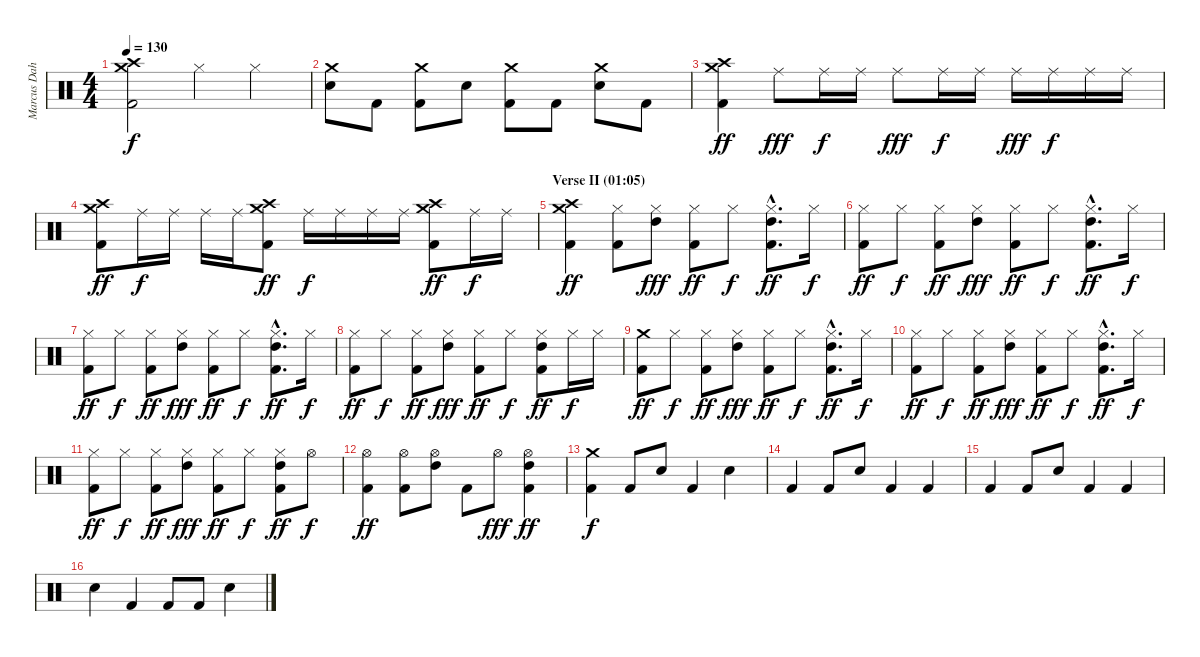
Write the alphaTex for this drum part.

\track ("Marcus Dahlström" "Marcus Dah") {instrument percussion}
\staff {score}
\articulation defaults
\ts (4 4)
\tempo 130
\clef neutral
\ks c
("Crash medium (hit)" "Crash high (hit)" "Kick (hit) 2").2{dy f} "Hi-Hat (closed)".4 "Hi-Hat (closed)".4 |
("Crash medium (hit)" "Electric Snare (hit)").8 "Kick (hit) 2".8 ("Crash medium (hit)" "Kick (hit) 2").8 "Electric Snare (hit)".8 ("Crash medium (hit)" "Kick (hit) 2").8 "Kick (hit) 2".8 ("Crash medium (hit)" "Electric Snare (hit)").8 "Kick (hit) 2".8 |
("Crash high (hit)" "Crash medium (hit)" "Kick (hit) 2").4{dy ff} "Ride (middle)".8{dy fff} "Ride (middle)".16{dy f} "Ride (middle)".16 "Ride (middle)".8{dy fff} "Ride (middle)".16{dy f} "Ride (middle)".16 "Ride (middle)".16{dy fff} "Ride (middle)".16{dy f} "Ride (middle)".16 "Ride (middle)".16 |
("Crash high (hit)" "Crash medium (hit)" "Kick (hit) 2").8{dy ff} "Ride (middle)".16{dy f} "Ride (middle)".16 "Ride (middle)".16 "Ride (middle)".16 ("Crash high (hit)" "Crash medium (hit)" "Kick (hit) 2").8{dy ff} "Ride (middle)".16{dy f} "Ride (middle)".16 "Ride (middle)".16 "Ride (middle)".16 ("Crash high (hit)" "Crash medium (hit)" "Kick (hit) 2").8{dy ff} "Ride (middle)".16{dy f} "Ride (middle)".16 |
\section ("" "Verse II (01:05)")
("Crash high (hit)" "Crash medium (hit)" "Kick (hit) 2").4{dy ff} ("Hi-Hat (closed)" "Kick (hit) 2").8 ("High Tom (hit)" "Hi-Hat (closed)").8{dy fff} ("Hi-Hat (closed)" "Kick (hit) 2").8{dy ff} "Hi-Hat (closed)".8{dy f} ("High Tom (hit)"{hac} "Hi-Hat (closed)"{hac} "Kick (hit) 2"{hac}).8{d dy ff} "Hi-Hat (closed)".16{dy f} |
("Hi-Hat (closed)" "Kick (hit) 2").8{dy ff} "Hi-Hat (closed)".8{dy f} ("Hi-Hat (closed)" "Kick (hit) 2").8{dy ff} ("High Tom (hit)" "Hi-Hat (closed)").8{dy fff} ("Hi-Hat (closed)" "Kick (hit) 2").8{dy ff} "Hi-Hat (closed)".8{dy f} ("High Tom (hit)"{hac} "Hi-Hat (closed)"{hac} "Kick (hit) 2"{hac}).8{d dy ff} "Hi-Hat (closed)".16{dy f} |
("Hi-Hat (closed)" "Kick (hit) 2").8{dy ff} "Hi-Hat (closed)".8{dy f} ("Hi-Hat (closed)" "Kick (hit) 2").8{dy ff} ("High Tom (hit)" "Hi-Hat (closed)").8{dy fff} ("Hi-Hat (closed)" "Kick (hit) 2").8{dy ff} "Hi-Hat (closed)".8{dy f} ("High Tom (hit)"{hac} "Hi-Hat (closed)"{hac} "Kick (hit) 2"{hac}).8{d dy ff} "Hi-Hat (closed)".16{dy f} |
("Hi-Hat (closed)" "Kick (hit) 2").8{dy ff} "Hi-Hat (closed)".8{dy f} ("Hi-Hat (closed)" "Kick (hit) 2").8{dy ff} ("High Tom (hit)" "Hi-Hat (closed)").8{dy fff} ("Hi-Hat (closed)" "Kick (hit) 2").8{dy ff} "Hi-Hat (closed)".8{dy f} ("High Tom (hit)" "Hi-Hat (closed)" "Kick (hit) 2").8{dy ff} "Hi-Hat (closed)".16{dy f} "Hi-Hat (closed)".16 |
("Crash medium (hit)" "Kick (hit) 2").8{dy ff} "Hi-Hat (closed)".8{dy f} ("Hi-Hat (closed)" "Kick (hit) 2").8{dy ff} ("High Tom (hit)" "Hi-Hat (closed)").8{dy fff} ("Hi-Hat (closed)" "Kick (hit) 2").8{dy ff} "Hi-Hat (closed)".8{dy f} ("High Tom (hit)"{hac} "Hi-Hat (closed)"{hac} "Kick (hit) 2"{hac}).8{d dy ff} "Hi-Hat (closed)".16{dy f} |
("Hi-Hat (closed)" "Kick (hit) 2").8{dy ff} "Hi-Hat (closed)".8{dy f} ("Hi-Hat (closed)" "Kick (hit) 2").8{dy ff} ("High Tom (hit)" "Hi-Hat (closed)").8{dy fff} ("Hi-Hat (closed)" "Kick (hit) 2").8{dy ff} "Hi-Hat (closed)".8{dy f} ("High Tom (hit)"{hac} "Hi-Hat (closed)"{hac} "Kick (hit) 2"{hac}).8{d dy ff} "Hi-Hat (closed)".16{dy f} |
("Hi-Hat (closed)" "Kick (hit) 2").8{dy ff} "Hi-Hat (closed)".8{dy f} ("Hi-Hat (closed)" "Kick (hit) 2").8{dy ff} ("High Tom (hit)" "Hi-Hat (closed)").8{dy fff} ("Hi-Hat (closed)" "Kick (hit) 2").8{dy ff} "Hi-Hat (closed)".8{dy f} ("High Tom (hit)" "Hi-Hat (closed)" "Kick (hit) 2").8{dy ff} "Hi-Hat (open)".8{dy f} |
("Hi-Hat (open)" "Kick (hit) 2").4{dy ff} ("Hi-Hat (open)" "Kick (hit) 2").8 ("High Tom (hit)" "Hi-Hat (open)").8 "Kick (hit) 2".8 "Hi-Hat (open)".8{dy fff} ("High Tom (hit)" "Hi-Hat (open)" "Kick (hit) 2").4{dy ff} |
("Crash medium (hit)" "Kick (hit) 2").4{dy f} "Kick (hit) 2".8 "Electric Snare (hit)".8 "Kick (hit) 2".4 "Electric Snare (hit)".4 |
"Kick (hit) 2".4 "Kick (hit) 2".8 "Electric Snare (hit)".8 "Kick (hit) 2".4 "Kick (hit) 2".4 |
"Kick (hit) 2".4 "Kick (hit) 2".8 "Electric Snare (hit)".8 "Kick (hit) 2".4 "Kick (hit) 2".4 |
"Electric Snare (hit)".4 "Kick (hit) 2".4 "Kick (hit) 2".8 "Kick (hit) 2".8 "Electric Snare (hit)".4
